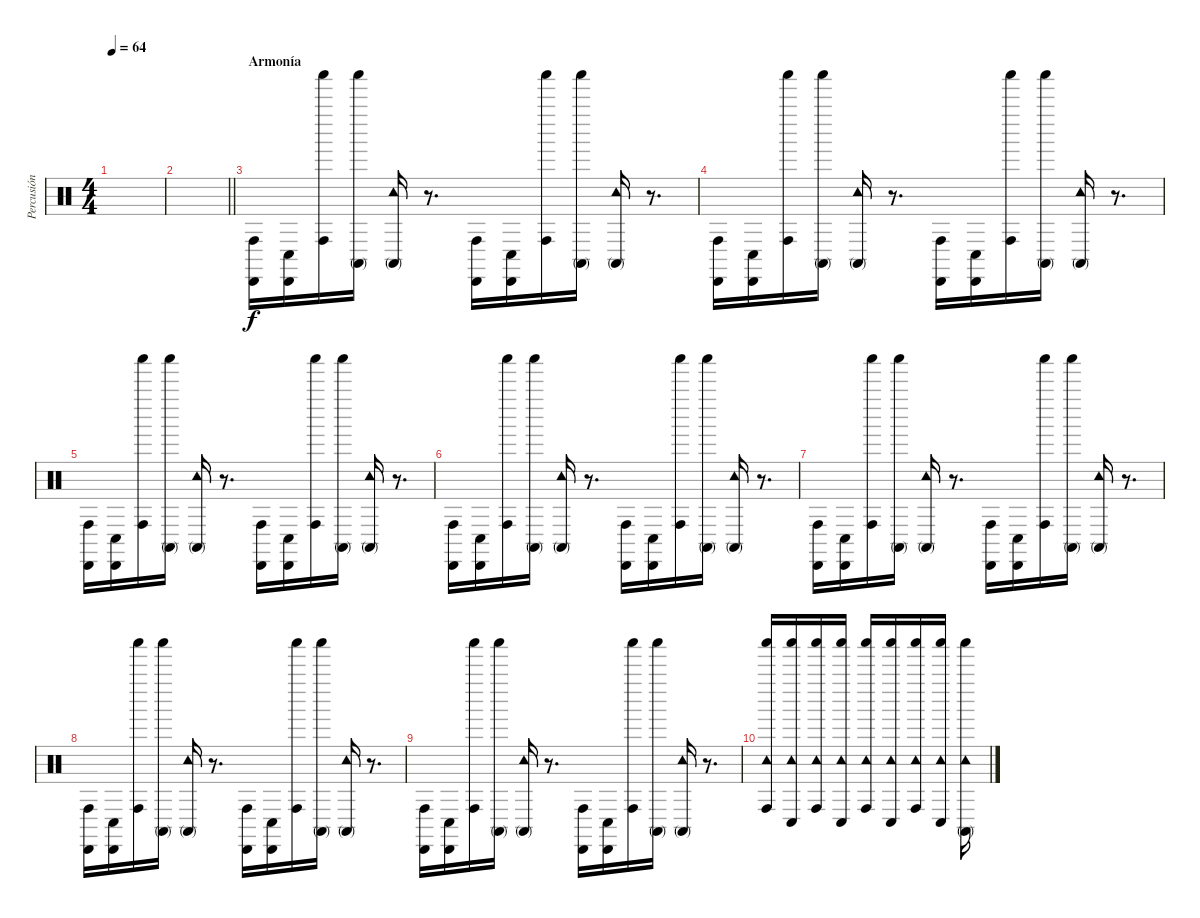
\track ("Percusión" "Percusión") {instrument percussion}
\staff {score}
\articulation defaults
\ts (4 4)
\tempo 64
\clef neutral
\ks c
|
\barLineRight lightlight
|
\section ("" "Armonía")
("Conga high (hit)" "Cabasa (hit)").16 ("Conga low (hit)" "Cabasa (hit)").16 ("Conga high (hit)" "Shaker (hit)").16 ("Conga high (mute)" "Shaker (hit)").16 ("Conga high (mute)" "Tambourine (hit)").16 r.8{d} ("Conga high (hit)" "Cabasa (hit)").16 ("Conga low (hit)" "Cabasa (hit)").16 ("Conga high (hit)" "Shaker (hit)").16 ("Conga high (mute)" "Shaker (hit)").16 ("Conga high (mute)" "Tambourine (hit)").16 r.8{d} |
("Conga high (hit)" "Cabasa (hit)").16 ("Conga low (hit)" "Cabasa (hit)").16 ("Conga high (hit)" "Shaker (hit)").16 ("Conga high (mute)" "Shaker (hit)").16 ("Conga high (mute)" "Tambourine (hit)").16 r.8{d} ("Conga high (hit)" "Cabasa (hit)").16 ("Conga low (hit)" "Cabasa (hit)").16 ("Conga high (hit)" "Shaker (hit)").16 ("Conga high (mute)" "Shaker (hit)").16 ("Conga high (mute)" "Tambourine (hit)").16 r.8{d} |
("Conga high (hit)" "Cabasa (hit)").16 ("Conga low (hit)" "Cabasa (hit)").16 ("Conga high (hit)" "Shaker (hit)").16 ("Conga high (mute)" "Shaker (hit)").16 ("Conga high (mute)" "Tambourine (hit)").16 r.8{d} ("Conga high (hit)" "Cabasa (hit)").16 ("Conga low (hit)" "Cabasa (hit)").16 ("Conga high (hit)" "Shaker (hit)").16 ("Conga high (mute)" "Shaker (hit)").16 ("Conga high (mute)" "Tambourine (hit)").16 r.8{d} |
("Conga high (hit)" "Cabasa (hit)").16 ("Conga low (hit)" "Cabasa (hit)").16 ("Conga high (hit)" "Shaker (hit)").16 ("Conga high (mute)" "Shaker (hit)").16 ("Conga high (mute)" "Tambourine (hit)").16 r.8{d} ("Conga high (hit)" "Cabasa (hit)").16 ("Conga low (hit)" "Cabasa (hit)").16 ("Conga high (hit)" "Shaker (hit)").16 ("Conga high (mute)" "Shaker (hit)").16 ("Conga high (mute)" "Tambourine (hit)").16 r.8{d} |
("Conga high (hit)" "Cabasa (hit)").16 ("Conga low (hit)" "Cabasa (hit)").16 ("Conga high (hit)" "Shaker (hit)").16 ("Conga high (mute)" "Shaker (hit)").16 ("Conga high (mute)" "Tambourine (hit)").16 r.8{d} ("Conga high (hit)" "Cabasa (hit)").16 ("Conga low (hit)" "Cabasa (hit)").16 ("Conga high (hit)" "Shaker (hit)").16 ("Conga high (mute)" "Shaker (hit)").16 ("Conga high (mute)" "Tambourine (hit)").16 r.8{d} |
("Conga high (hit)" "Cabasa (hit)").16 ("Conga low (hit)" "Cabasa (hit)").16 ("Conga high (hit)" "Shaker (hit)").16 ("Conga high (mute)" "Shaker (hit)").16 ("Conga high (mute)" "Tambourine (hit)").16 r.8{d} ("Conga high (hit)" "Cabasa (hit)").16 ("Conga low (hit)" "Cabasa (hit)").16 ("Conga high (hit)" "Shaker (hit)").16 ("Conga high (mute)" "Shaker (hit)").16 ("Conga high (mute)" "Tambourine (hit)").16 r.8{d} |
("Conga high (hit)" "Cabasa (hit)").16 ("Conga low (hit)" "Cabasa (hit)").16 ("Conga high (hit)" "Shaker (hit)").16 ("Conga high (mute)" "Shaker (hit)").16 ("Conga high (mute)" "Tambourine (hit)").16 r.8{d} ("Conga high (hit)" "Cabasa (hit)").16 ("Conga low (hit)" "Cabasa (hit)").16 ("Conga high (hit)" "Shaker (hit)").16 ("Conga high (mute)" "Shaker (hit)").16 ("Conga high (mute)" "Tambourine (hit)").16 r.8{d} |
("Conga high (hit)" "Tambourine (hit)" "Shaker (hit)").16 ("Conga low (hit)" "Tambourine (hit)" "Shaker (hit)").16 ("Conga high (hit)" "Tambourine (hit)" "Shaker (hit)").16 ("Conga low (hit)" "Tambourine (hit)" "Shaker (hit)").16 ("Conga high (hit)" "Tambourine (hit)" "Shaker (hit)").16 ("Conga low (hit)" "Tambourine (hit)" "Shaker (hit)").16 ("Conga high (hit)" "Tambourine (hit)" "Shaker (hit)").16 ("Conga low (hit)" "Tambourine (hit)" "Shaker (hit)").16 ("Conga high (mute)" "Tambourine (hit)" "Shaker (hit)").16
